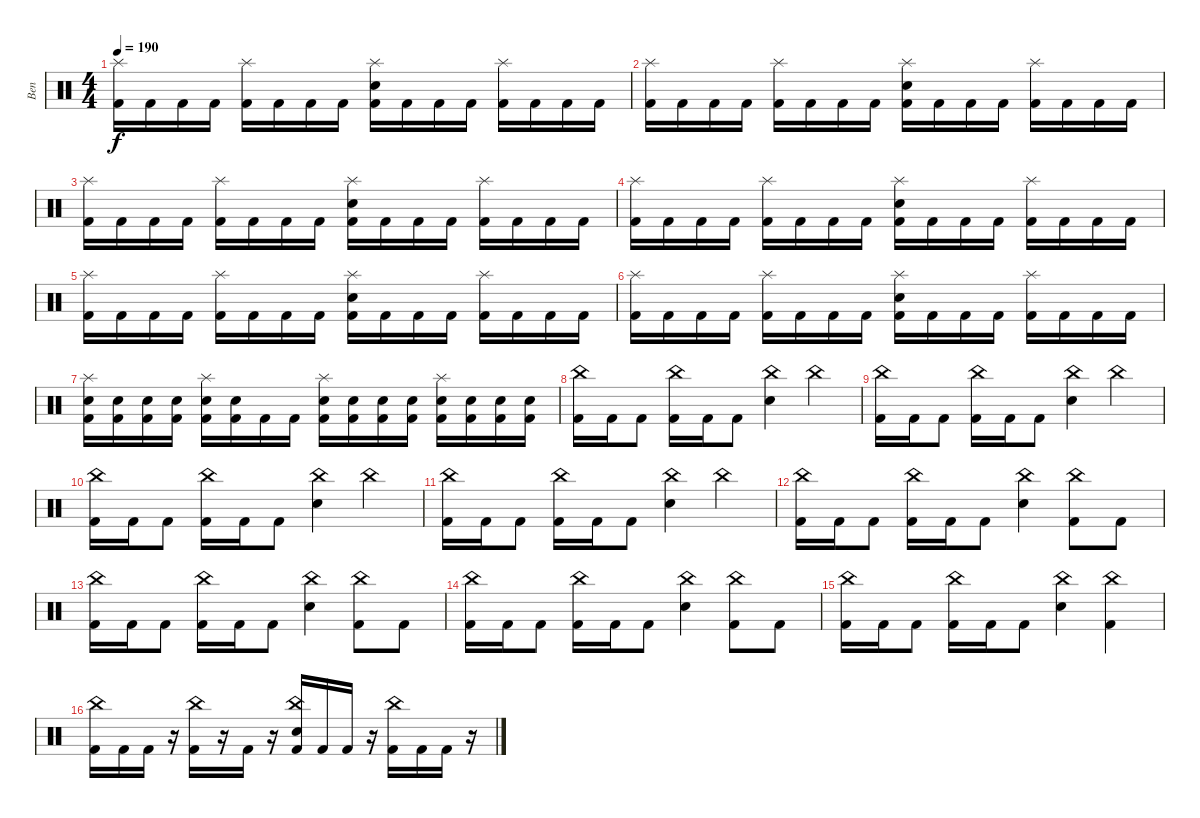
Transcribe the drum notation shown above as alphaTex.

\track ("Ben" "Ben") {instrument percussion}
\staff {score}
\articulation defaults
\ts (4 4)
\tempo 190
\clef neutral
\ks c
("Splash (hit)" "Kick (hit) 2").16{dy f} "Kick (hit) 2".16 "Kick (hit) 2".16 "Kick (hit) 2".16 ("Splash (hit)" "Kick (hit) 2").16 "Kick (hit) 2".16 "Kick (hit) 2".16 "Kick (hit) 2".16 ("Snare (hit) 2" "Splash (hit)" "Kick (hit) 2").16 "Kick (hit) 2".16 "Kick (hit) 2".16 "Kick (hit) 2".16 ("Splash (hit)" "Kick (hit) 2").16 "Kick (hit) 2".16 "Kick (hit) 2".16 "Kick (hit) 2".16 |
("Splash (hit)" "Kick (hit) 2").16 "Kick (hit) 2".16 "Kick (hit) 2".16 "Kick (hit) 2".16 ("Splash (hit)" "Kick (hit) 2").16 "Kick (hit) 2".16 "Kick (hit) 2".16 "Kick (hit) 2".16 ("Snare (hit) 2" "Splash (hit)" "Kick (hit) 2").16 "Kick (hit) 2".16 "Kick (hit) 2".16 "Kick (hit) 2".16 ("Splash (hit)" "Kick (hit) 2").16 "Kick (hit) 2".16 "Kick (hit) 2".16 "Kick (hit) 2".16 |
("Splash (hit)" "Kick (hit) 2").16 "Kick (hit) 2".16 "Kick (hit) 2".16 "Kick (hit) 2".16 ("Splash (hit)" "Kick (hit) 2").16 "Kick (hit) 2".16 "Kick (hit) 2".16 "Kick (hit) 2".16 ("Snare (hit) 2" "Splash (hit)" "Kick (hit) 2").16 "Kick (hit) 2".16 "Kick (hit) 2".16 "Kick (hit) 2".16 ("Splash (hit)" "Kick (hit) 2").16 "Kick (hit) 2".16 "Kick (hit) 2".16 "Kick (hit) 2".16 |
("Splash (hit)" "Kick (hit) 2").16 "Kick (hit) 2".16 "Kick (hit) 2".16 "Kick (hit) 2".16 ("Splash (hit)" "Kick (hit) 2").16 "Kick (hit) 2".16 "Kick (hit) 2".16 "Kick (hit) 2".16 ("Snare (hit) 2" "Splash (hit)" "Kick (hit) 2").16 "Kick (hit) 2".16 "Kick (hit) 2".16 "Kick (hit) 2".16 ("Splash (hit)" "Kick (hit) 2").16 "Kick (hit) 2".16 "Kick (hit) 2".16 "Kick (hit) 2".16 |
("Splash (hit)" "Kick (hit) 2").16 "Kick (hit) 2".16 "Kick (hit) 2".16 "Kick (hit) 2".16 ("Splash (hit)" "Kick (hit) 2").16 "Kick (hit) 2".16 "Kick (hit) 2".16 "Kick (hit) 2".16 ("Snare (hit) 2" "Splash (hit)" "Kick (hit) 2").16 "Kick (hit) 2".16 "Kick (hit) 2".16 "Kick (hit) 2".16 ("Splash (hit)" "Kick (hit) 2").16 "Kick (hit) 2".16 "Kick (hit) 2".16 "Kick (hit) 2".16 |
("Splash (hit)" "Kick (hit) 2").16 "Kick (hit) 2".16 "Kick (hit) 2".16 "Kick (hit) 2".16 ("Splash (hit)" "Kick (hit) 2").16 "Kick (hit) 2".16 "Kick (hit) 2".16 "Kick (hit) 2".16 ("Snare (hit) 2" "Splash (hit)" "Kick (hit) 2").16 "Kick (hit) 2".16 "Kick (hit) 2".16 "Kick (hit) 2".16 ("Splash (hit)" "Kick (hit) 2").16 "Kick (hit) 2".16 "Kick (hit) 2".16 "Kick (hit) 2".16 |
("Snare (hit) 2" "Splash (hit)" "Kick (hit) 2").16 ("Snare (hit) 2" "Kick (hit) 2").16 ("Snare (hit) 2" "Kick (hit) 2").16 ("Snare (hit) 2" "Kick (hit) 2").16 ("Snare (hit) 2" "Splash (hit)" "Kick (hit) 2").16 ("Snare (hit) 2" "Kick (hit) 2").16 "Kick (hit) 2".16 "Kick (hit) 2".16 ("Snare (hit) 2" "Splash (hit)" "Kick (hit) 2").16 ("Snare (hit) 2" "Kick (hit) 2").16 ("Snare (hit) 2" "Kick (hit) 2").16 ("Snare (hit) 2" "Kick (hit) 2").16 ("Snare (hit) 2" "Splash (hit)" "Kick (hit) 2").16 ("Snare (hit) 2" "Kick (hit) 2").16 ("Snare (hit) 2" "Kick (hit) 2").16 ("Snare (hit) 2" "Kick (hit) 2").16 |
("Kick (hit) 2" "China (hit)").16 "Kick (hit) 2".16 "Kick (hit) 2".8 ("Kick (hit) 2" "China (hit)").16 "Kick (hit) 2".16 "Kick (hit) 2".8 ("Electric Snare (hit)" "China (hit)").4 "China (hit)".4 |
("Kick (hit) 2" "China (hit)").16 "Kick (hit) 2".16 "Kick (hit) 2".8 ("Kick (hit) 2" "China (hit)").16 "Kick (hit) 2".16 "Kick (hit) 2".8 ("Electric Snare (hit)" "China (hit)").4 "China (hit)".4 |
("Kick (hit) 2" "China (hit)").16 "Kick (hit) 2".16 "Kick (hit) 2".8 ("Kick (hit) 2" "China (hit)").16 "Kick (hit) 2".16 "Kick (hit) 2".8 ("Electric Snare (hit)" "China (hit)").4 "China (hit)".4 |
("Kick (hit) 2" "China (hit)").16 "Kick (hit) 2".16 "Kick (hit) 2".8 ("Kick (hit) 2" "China (hit)").16 "Kick (hit) 2".16 "Kick (hit) 2".8 ("Electric Snare (hit)" "China (hit)").4 "China (hit)".4 |
("Kick (hit) 2" "China (hit)").16 "Kick (hit) 2".16 "Kick (hit) 2".8 ("Kick (hit) 2" "China (hit)").16 "Kick (hit) 2".16 "Kick (hit) 2".8 ("Electric Snare (hit)" "China (hit)").4 ("Kick (hit) 2" "China (hit)").8 "Kick (hit) 2".8 |
("Kick (hit) 2" "China (hit)").16 "Kick (hit) 2".16 "Kick (hit) 2".8 ("Kick (hit) 2" "China (hit)").16 "Kick (hit) 2".16 "Kick (hit) 2".8 ("Electric Snare (hit)" "China (hit)").4 ("Kick (hit) 2" "China (hit)").8 "Kick (hit) 2".8 |
("Kick (hit) 2" "China (hit)").16 "Kick (hit) 2".16 "Kick (hit) 2".8 ("Kick (hit) 2" "China (hit)").16 "Kick (hit) 2".16 "Kick (hit) 2".8 ("Electric Snare (hit)" "China (hit)").4 ("Kick (hit) 2" "China (hit)").8 "Kick (hit) 2".8 |
("Kick (hit) 2" "China (hit)").16 "Kick (hit) 2".16 "Kick (hit) 2".8 ("Kick (hit) 2" "China (hit)").16 "Kick (hit) 2".16 "Kick (hit) 2".8 ("Electric Snare (hit)" "China (hit)").4 ("Kick (hit) 2" "China (hit)").4 |
("China (hit)" "Kick (hit) 2").16 "Kick (hit) 2".16 "Kick (hit) 2".16 r.16 ("China (hit)" "Kick (hit) 2").16 r.16 "Kick (hit) 2".16 r.16 ("China (hit)" "Electric Snare (hit)" "Kick (hit) 2").16 "Kick (hit) 2".16 "Kick (hit) 2".16 r.16 ("China (hit)" "Kick (hit) 2").16 "Kick (hit) 2".16 "Kick (hit) 2".16 r.16
